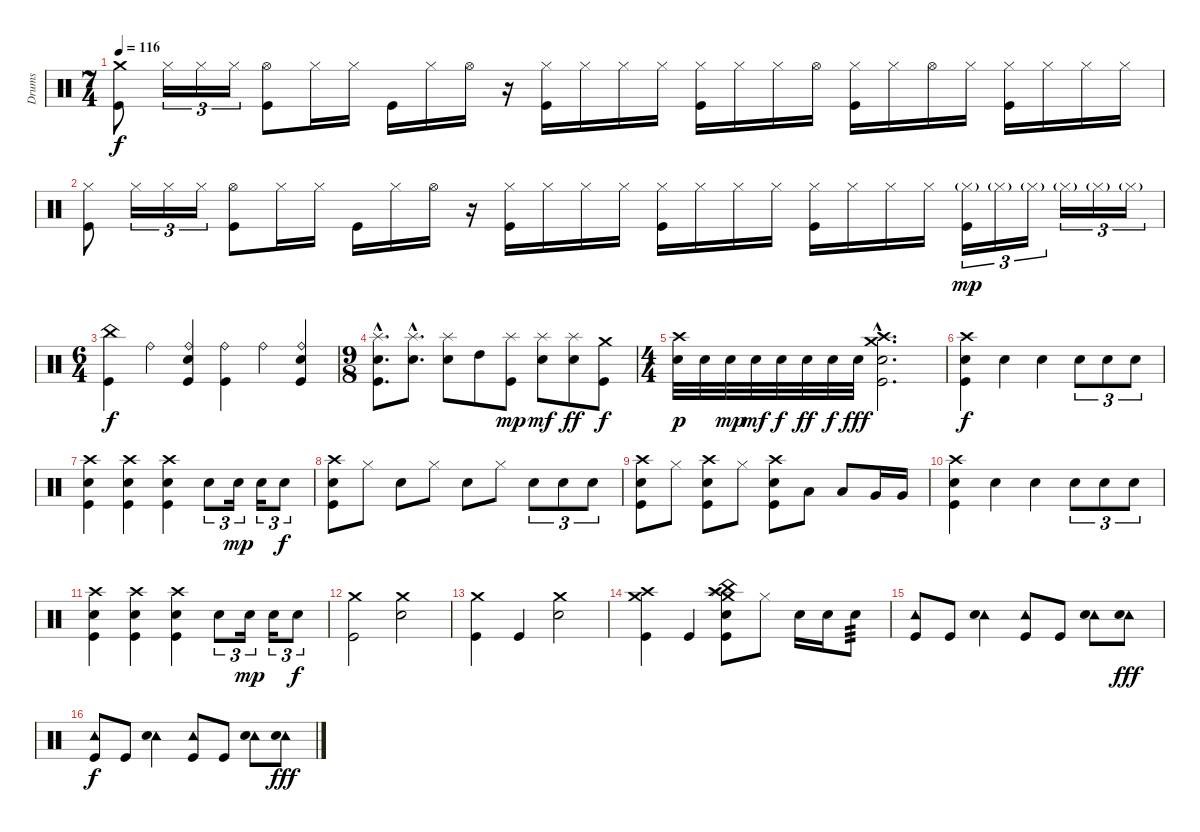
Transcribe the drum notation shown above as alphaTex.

\track ("Drums" "Drums") {instrument percussion}
\staff {score}
\articulation defaults
\ts (7 4)
\tempo 116
\clef neutral
\ks c
("Crash medium (hit)" "Kick (hit)").8{dy f} "Hi-Hat (closed)".16{tu (3 2)} "Hi-Hat (closed)".16{tu (3 2)} "Hi-Hat (closed)".16{tu (3 2)} ("Hi-Hat (open)" "Kick (hit)").8 "Hi-Hat (closed)".16 "Hi-Hat (closed)".16 "Kick (hit)".16 "Hi-Hat (closed)".16 "Hi-Hat (open)".16 r.16 ("Hi-Hat (closed)" "Kick (hit)").16 "Hi-Hat (closed)".16 "Hi-Hat (closed)".16 "Hi-Hat (closed)".16 ("Hi-Hat (closed)" "Kick (hit)").16 "Hi-Hat (closed)".16 "Hi-Hat (closed)".16 "Hi-Hat (open)".16 ("Hi-Hat (closed)" "Kick (hit)").16 "Hi-Hat (closed)".16 "Hi-Hat (open)".16 "Hi-Hat (closed)".16 ("Hi-Hat (closed)" "Kick (hit)").16 "Hi-Hat (closed)".16 "Hi-Hat (closed)".16 "Hi-Hat (closed)".16 |
("Hi-Hat (closed)" "Kick (hit)").8 "Hi-Hat (closed)".16{tu (3 2)} "Hi-Hat (closed)".16{tu (3 2)} "Hi-Hat (closed)".16{tu (3 2)} ("Hi-Hat (open)" "Kick (hit)").8 "Hi-Hat (closed)".16 "Hi-Hat (closed)".16 "Kick (hit)".16 "Hi-Hat (closed)".16 "Hi-Hat (open)".16 r.16 ("Hi-Hat (closed)" "Kick (hit)").16 "Hi-Hat (closed)".16 "Hi-Hat (closed)".16 "Hi-Hat (closed)".16 ("Hi-Hat (closed)" "Kick (hit)").16 "Hi-Hat (closed)".16 "Hi-Hat (closed)".16 "Hi-Hat (closed)".16 ("Hi-Hat (closed)" "Kick (hit)").16 "Hi-Hat (closed)".16 "Hi-Hat (closed)".16 "Hi-Hat (closed)".16 ("Hi-Hat (closed)"{g} "Kick (hit)").16{tu (3 2) dy mp} "Hi-Hat (closed)"{g}.16{tu (3 2)} "Hi-Hat (closed)"{g}.16{tu (3 2)} "Hi-Hat (closed)"{g}.16{tu (3 2)} "Hi-Hat (closed)"{g}.16{tu (3 2)} "Hi-Hat (closed)"{g}.16{tu (3 2)} |
\ts (6 4)
("China (hit)" "Kick (hit)").4{dy f} "Ride (bell)".4 ("Ride (bell)" "Electric Snare (hit)" "Kick (hit)").4 ("Ride (bell)" "Kick (hit)").4 "Ride (bell)".4 ("Ride (bell)" "Electric Snare (hit)" "Kick (hit)").4 |
\ts (9 8)
("Splash (hit)"{hac} "Electric Snare (hit)"{hac} "Kick (hit)"{hac}).8{d} ("Splash (hit)"{hac} "Electric Snare (hit)"{hac}).8{d} ("Splash (hit)" "Electric Snare (hit)").8 "High Tom (hit)".8 ("Splash (hit)" "Kick (hit)").8{dy mp} ("Splash (hit)" "Electric Snare (hit)").8{dy mf} ("Splash (hit)" "Electric Snare (hit)").8{dy ff} ("Crash medium (hit)" "Kick (hit)").8{dy f} |
\ts (4 4)
("Crash high (hit)" "Electric Snare (hit)").32{dy p} "Electric Snare (hit)".32 "Electric Snare (hit)".32{dy mp} "Electric Snare (hit)".32{dy mf} "Electric Snare (hit)".32{dy f} "Electric Snare (hit)".32{dy ff} "Electric Snare (hit)".32{dy f} "Electric Snare (hit)".32{dy fff} ("Crash medium (hit)"{hac} "Crash high (hit)"{hac} "Electric Snare (hit)"{hac} "Kick (hit)"{hac}).2{d} |
("Crash high (hit)" "Electric Snare (hit)" "Kick (hit)").4{dy f} "Electric Snare (hit)".4 "Electric Snare (hit)".4 "Electric Snare (hit)".8{tu (3 2)} "Electric Snare (hit)".8{tu (3 2)} "Electric Snare (hit)".8{tu (3 2)} |
("Crash high (hit)" "Electric Snare (hit)" "Kick (hit)").4 ("Crash high (hit)" "Electric Snare (hit)" "Kick (hit)").4 ("Crash high (hit)" "Electric Snare (hit)" "Kick (hit)").4 "Electric Snare (hit)".8{tu (3 2)} "Electric Snare (hit)".16{tu (3 2) dy mp} "Electric Snare (hit)".16{tu (3 2)} "Electric Snare (hit)".8{tu (3 2) dy f} |
("Crash high (hit)" "Electric Snare (hit)" "Kick (hit)").8 "Hi-Hat (closed)".8 "Electric Snare (hit)".8 "Hi-Hat (closed)".8 "Electric Snare (hit)".8 "Hi-Hat (closed)".8 "Electric Snare (hit)".8{tu (3 2)} "Electric Snare (hit)".8{tu (3 2)} "Electric Snare (hit)".8{tu (3 2)} |
("Crash high (hit)" "Electric Snare (hit)" "Kick (hit)").8 "Hi-Hat (closed)".8 ("Crash high (hit)" "Electric Snare (hit)" "Kick (hit)").8 "Hi-Hat (closed)".8 ("Crash high (hit)" "Electric Snare (hit)" "Kick (hit)").8 "Low Tom (hit)".8 "Low Tom (hit)".8 "Very Low Tom (hit)".16 "Very Low Tom (hit)".16 |
("Crash high (hit)" "Electric Snare (hit)" "Kick (hit)").4 "Electric Snare (hit)".4 "Electric Snare (hit)".4 "Electric Snare (hit)".8{tu (3 2)} "Electric Snare (hit)".8{tu (3 2)} "Electric Snare (hit)".8{tu (3 2)} |
("Crash high (hit)" "Electric Snare (hit)" "Kick (hit)").4 ("Crash high (hit)" "Electric Snare (hit)" "Kick (hit)").4 ("Crash high (hit)" "Electric Snare (hit)" "Kick (hit)").4 "Electric Snare (hit)".8{tu (3 2)} "Electric Snare (hit)".16{tu (3 2) dy mp} "Electric Snare (hit)".16{tu (3 2)} "Electric Snare (hit)".8{tu (3 2) dy f} |
("Crash medium (hit)" "Kick (hit)").2 ("Crash medium (hit)" "Electric Snare (hit)").2 |
("Crash medium (hit)" "Kick (hit)").4 "Kick (hit)".4 ("Crash medium (hit)" "Electric Snare (hit)").2 |
("Crash medium (hit)" "Crash high (hit)" "Kick (hit)").4 "Kick (hit)".4 ("Crash medium (hit)" "Crash high (hit)" "China (hit)" "Splash (hit)" "Electric Snare (hit)" "Kick (hit)").8 "Hi-Hat (closed)".8 "Electric Snare (hit)".16 "Electric Snare (hit)".16 "Electric Snare (hit)".8{tp 3} |
("Tambourine (hit)" "Kick (hit)").8 "Kick (hit)".8 ("Tambourine (hit)" "Electric Snare (hit)").4 ("Tambourine (hit)" "Kick (hit)").8 "Kick (hit)".8 ("Tambourine (hit)" "Electric Snare (hit)").8 ("Tambourine (hit)" "Electric Snare (hit)").8{dy fff} |
("Tambourine (hit)" "Kick (hit)").8{dy f} "Kick (hit)".8 ("Tambourine (hit)" "Electric Snare (hit)").4 ("Tambourine (hit)" "Kick (hit)").8 "Kick (hit)".8 ("Tambourine (hit)" "Electric Snare (hit)").8 ("Tambourine (hit)" "Electric Snare (hit)").8{dy fff}
